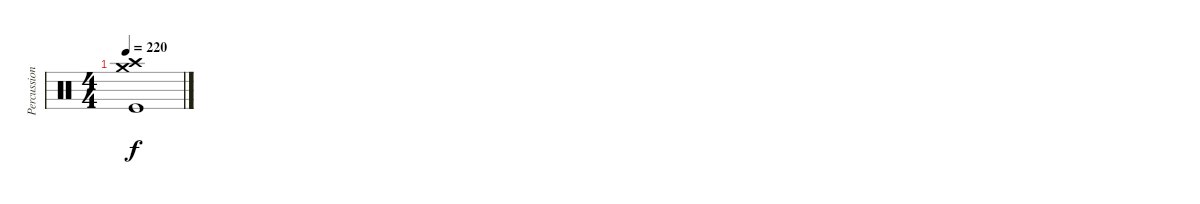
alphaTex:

\track ("Percussion" "Percussion") {instrument percussion}
\staff {score}
\articulation defaults
\ts (4 4)
\tempo 220
\clef neutral
\ks c
("Crash high (hit)" "Crash medium (hit)" "Kick (hit)").1{dy f}
